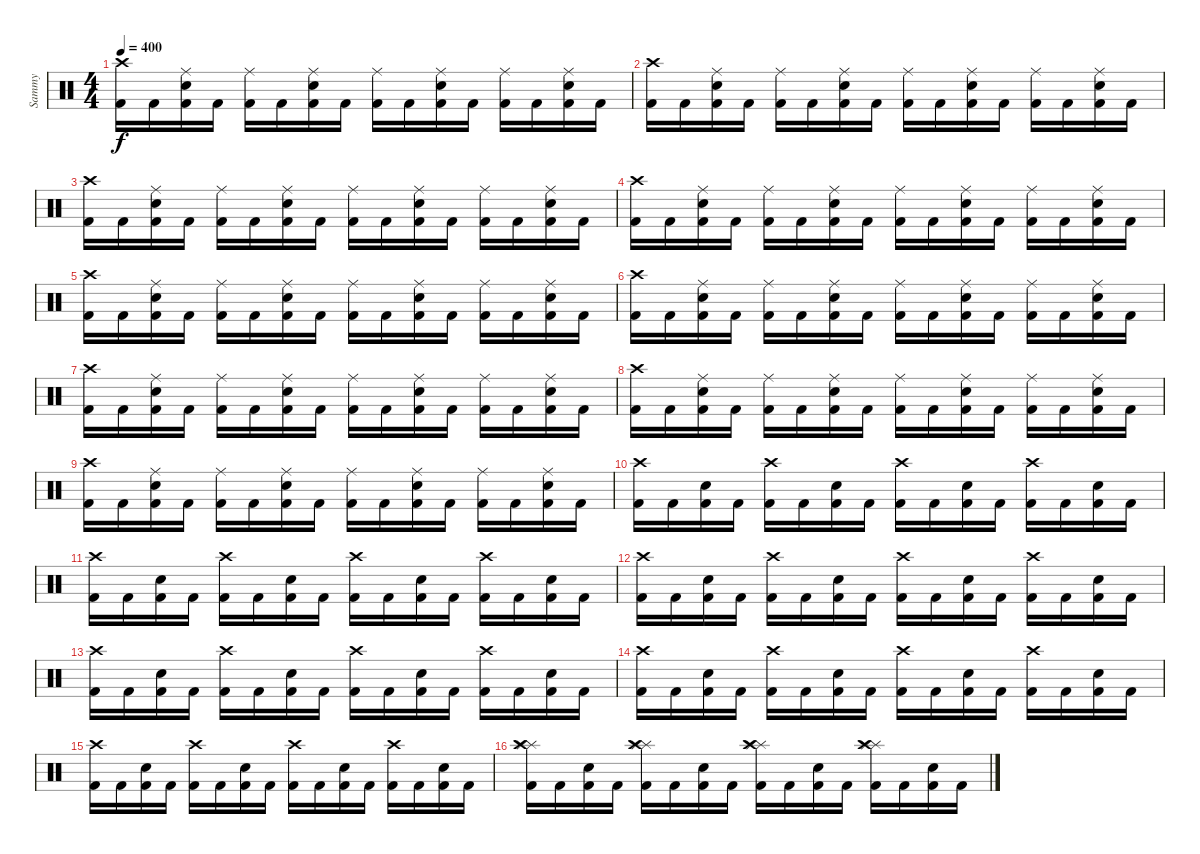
\track ("Sammy" "Sammy") {instrument percussion}
\staff {score}
\articulation defaults
\ts (4 4)
\tempo 400
\clef neutral
\ks c
("Crash high (hit)" "Kick (hit) 2").16{dy f} "Kick (hit) 2".16 ("Ride (middle)" "Electric Snare (hit)" "Kick (hit) 2").16 "Kick (hit) 2".16 ("Ride (middle)" "Kick (hit) 2").16 "Kick (hit) 2".16 ("Ride (middle)" "Electric Snare (hit)" "Kick (hit) 2").16 "Kick (hit) 2".16 ("Ride (middle)" "Kick (hit) 2").16 "Kick (hit) 2".16 ("Ride (middle)" "Electric Snare (hit)" "Kick (hit) 2").16 "Kick (hit) 2".16 ("Ride (middle)" "Kick (hit) 2").16 "Kick (hit) 2".16 ("Ride (middle)" "Electric Snare (hit)" "Kick (hit) 2").16 "Kick (hit) 2".16 |
("Crash high (hit)" "Kick (hit) 2").16 "Kick (hit) 2".16 ("Ride (middle)" "Electric Snare (hit)" "Kick (hit) 2").16 "Kick (hit) 2".16 ("Ride (middle)" "Kick (hit) 2").16 "Kick (hit) 2".16 ("Ride (middle)" "Electric Snare (hit)" "Kick (hit) 2").16 "Kick (hit) 2".16 ("Ride (middle)" "Kick (hit) 2").16 "Kick (hit) 2".16 ("Ride (middle)" "Electric Snare (hit)" "Kick (hit) 2").16 "Kick (hit) 2".16 ("Ride (middle)" "Kick (hit) 2").16 "Kick (hit) 2".16 ("Ride (middle)" "Electric Snare (hit)" "Kick (hit) 2").16 "Kick (hit) 2".16 |
("Crash high (hit)" "Kick (hit) 2").16 "Kick (hit) 2".16 ("Ride (middle)" "Electric Snare (hit)" "Kick (hit) 2").16 "Kick (hit) 2".16 ("Ride (middle)" "Kick (hit) 2").16 "Kick (hit) 2".16 ("Ride (middle)" "Electric Snare (hit)" "Kick (hit) 2").16 "Kick (hit) 2".16 ("Ride (middle)" "Kick (hit) 2").16 "Kick (hit) 2".16 ("Ride (middle)" "Electric Snare (hit)" "Kick (hit) 2").16 "Kick (hit) 2".16 ("Ride (middle)" "Kick (hit) 2").16 "Kick (hit) 2".16 ("Ride (middle)" "Electric Snare (hit)" "Kick (hit) 2").16 "Kick (hit) 2".16 |
("Crash high (hit)" "Kick (hit) 2").16 "Kick (hit) 2".16 ("Ride (middle)" "Electric Snare (hit)" "Kick (hit) 2").16 "Kick (hit) 2".16 ("Ride (middle)" "Kick (hit) 2").16 "Kick (hit) 2".16 ("Ride (middle)" "Electric Snare (hit)" "Kick (hit) 2").16 "Kick (hit) 2".16 ("Ride (middle)" "Kick (hit) 2").16 "Kick (hit) 2".16 ("Ride (middle)" "Electric Snare (hit)" "Kick (hit) 2").16 "Kick (hit) 2".16 ("Ride (middle)" "Kick (hit) 2").16 "Kick (hit) 2".16 ("Ride (middle)" "Electric Snare (hit)" "Kick (hit) 2").16 "Kick (hit) 2".16 |
("Crash high (hit)" "Kick (hit) 2").16 "Kick (hit) 2".16 ("Ride (middle)" "Electric Snare (hit)" "Kick (hit) 2").16 "Kick (hit) 2".16 ("Ride (middle)" "Kick (hit) 2").16 "Kick (hit) 2".16 ("Ride (middle)" "Electric Snare (hit)" "Kick (hit) 2").16 "Kick (hit) 2".16 ("Ride (middle)" "Kick (hit) 2").16 "Kick (hit) 2".16 ("Ride (middle)" "Electric Snare (hit)" "Kick (hit) 2").16 "Kick (hit) 2".16 ("Ride (middle)" "Kick (hit) 2").16 "Kick (hit) 2".16 ("Ride (middle)" "Electric Snare (hit)" "Kick (hit) 2").16 "Kick (hit) 2".16 |
("Crash high (hit)" "Kick (hit) 2").16 "Kick (hit) 2".16 ("Ride (middle)" "Electric Snare (hit)" "Kick (hit) 2").16 "Kick (hit) 2".16 ("Ride (middle)" "Kick (hit) 2").16 "Kick (hit) 2".16 ("Ride (middle)" "Electric Snare (hit)" "Kick (hit) 2").16 "Kick (hit) 2".16 ("Ride (middle)" "Kick (hit) 2").16 "Kick (hit) 2".16 ("Ride (middle)" "Electric Snare (hit)" "Kick (hit) 2").16 "Kick (hit) 2".16 ("Ride (middle)" "Kick (hit) 2").16 "Kick (hit) 2".16 ("Ride (middle)" "Electric Snare (hit)" "Kick (hit) 2").16 "Kick (hit) 2".16 |
("Crash high (hit)" "Kick (hit) 2").16 "Kick (hit) 2".16 ("Ride (middle)" "Electric Snare (hit)" "Kick (hit) 2").16 "Kick (hit) 2".16 ("Ride (middle)" "Kick (hit) 2").16 "Kick (hit) 2".16 ("Ride (middle)" "Electric Snare (hit)" "Kick (hit) 2").16 "Kick (hit) 2".16 ("Ride (middle)" "Kick (hit) 2").16 "Kick (hit) 2".16 ("Ride (middle)" "Electric Snare (hit)" "Kick (hit) 2").16 "Kick (hit) 2".16 ("Ride (middle)" "Kick (hit) 2").16 "Kick (hit) 2".16 ("Ride (middle)" "Electric Snare (hit)" "Kick (hit) 2").16 "Kick (hit) 2".16 |
("Crash high (hit)" "Kick (hit) 2").16 "Kick (hit) 2".16 ("Ride (middle)" "Electric Snare (hit)" "Kick (hit) 2").16 "Kick (hit) 2".16 ("Ride (middle)" "Kick (hit) 2").16 "Kick (hit) 2".16 ("Ride (middle)" "Electric Snare (hit)" "Kick (hit) 2").16 "Kick (hit) 2".16 ("Ride (middle)" "Kick (hit) 2").16 "Kick (hit) 2".16 ("Ride (middle)" "Electric Snare (hit)" "Kick (hit) 2").16 "Kick (hit) 2".16 ("Ride (middle)" "Kick (hit) 2").16 "Kick (hit) 2".16 ("Ride (middle)" "Electric Snare (hit)" "Kick (hit) 2").16 "Kick (hit) 2".16 |
("Crash high (hit)" "Kick (hit) 2").16 "Kick (hit) 2".16 ("Ride (middle)" "Electric Snare (hit)" "Kick (hit) 2").16 "Kick (hit) 2".16 ("Ride (middle)" "Kick (hit) 2").16 "Kick (hit) 2".16 ("Ride (middle)" "Electric Snare (hit)" "Kick (hit) 2").16 "Kick (hit) 2".16 ("Ride (middle)" "Kick (hit) 2").16 "Kick (hit) 2".16 ("Ride (middle)" "Electric Snare (hit)" "Kick (hit) 2").16 "Kick (hit) 2".16 ("Ride (middle)" "Kick (hit) 2").16 "Kick (hit) 2".16 ("Ride (middle)" "Electric Snare (hit)" "Kick (hit) 2").16 "Kick (hit) 2".16 |
("Crash high (hit)" "Kick (hit) 2").16 "Kick (hit) 2".16 ("Electric Snare (hit)" "Kick (hit) 2").16 "Kick (hit) 2".16 ("Crash high (hit)" "Kick (hit) 2").16 "Kick (hit) 2".16 ("Electric Snare (hit)" "Kick (hit) 2").16 "Kick (hit) 2".16 ("Crash high (hit)" "Kick (hit) 2").16 "Kick (hit) 2".16 ("Electric Snare (hit)" "Kick (hit) 2").16 "Kick (hit) 2".16 ("Crash high (hit)" "Kick (hit) 2").16 "Kick (hit) 2".16 ("Electric Snare (hit)" "Kick (hit) 2").16 "Kick (hit) 2".16 |
("Crash high (hit)" "Kick (hit) 2").16 "Kick (hit) 2".16 ("Electric Snare (hit)" "Kick (hit) 2").16 "Kick (hit) 2".16 ("Crash high (hit)" "Kick (hit) 2").16 "Kick (hit) 2".16 ("Electric Snare (hit)" "Kick (hit) 2").16 "Kick (hit) 2".16 ("Crash high (hit)" "Kick (hit) 2").16 "Kick (hit) 2".16 ("Electric Snare (hit)" "Kick (hit) 2").16 "Kick (hit) 2".16 ("Crash high (hit)" "Kick (hit) 2").16 "Kick (hit) 2".16 ("Electric Snare (hit)" "Kick (hit) 2").16 "Kick (hit) 2".16 |
("Crash high (hit)" "Kick (hit) 2").16 "Kick (hit) 2".16 ("Electric Snare (hit)" "Kick (hit) 2").16 "Kick (hit) 2".16 ("Crash high (hit)" "Kick (hit) 2").16 "Kick (hit) 2".16 ("Electric Snare (hit)" "Kick (hit) 2").16 "Kick (hit) 2".16 ("Crash high (hit)" "Kick (hit) 2").16 "Kick (hit) 2".16 ("Electric Snare (hit)" "Kick (hit) 2").16 "Kick (hit) 2".16 ("Crash high (hit)" "Kick (hit) 2").16 "Kick (hit) 2".16 ("Electric Snare (hit)" "Kick (hit) 2").16 "Kick (hit) 2".16 |
("Crash high (hit)" "Kick (hit) 2").16 "Kick (hit) 2".16 ("Electric Snare (hit)" "Kick (hit) 2").16 "Kick (hit) 2".16 ("Crash high (hit)" "Kick (hit) 2").16 "Kick (hit) 2".16 ("Electric Snare (hit)" "Kick (hit) 2").16 "Kick (hit) 2".16 ("Crash high (hit)" "Kick (hit) 2").16 "Kick (hit) 2".16 ("Electric Snare (hit)" "Kick (hit) 2").16 "Kick (hit) 2".16 ("Crash high (hit)" "Kick (hit) 2").16 "Kick (hit) 2".16 ("Electric Snare (hit)" "Kick (hit) 2").16 "Kick (hit) 2".16 |
("Crash high (hit)" "Kick (hit) 2").16 "Kick (hit) 2".16 ("Electric Snare (hit)" "Kick (hit) 2").16 "Kick (hit) 2".16 ("Crash high (hit)" "Kick (hit) 2").16 "Kick (hit) 2".16 ("Electric Snare (hit)" "Kick (hit) 2").16 "Kick (hit) 2".16 ("Crash high (hit)" "Kick (hit) 2").16 "Kick (hit) 2".16 ("Electric Snare (hit)" "Kick (hit) 2").16 "Kick (hit) 2".16 ("Crash high (hit)" "Kick (hit) 2").16 "Kick (hit) 2".16 ("Electric Snare (hit)" "Kick (hit) 2").16 "Kick (hit) 2".16 |
("Crash high (hit)" "Kick (hit) 2").16 "Kick (hit) 2".16 ("Electric Snare (hit)" "Kick (hit) 2").16 "Kick (hit) 2".16 ("Crash high (hit)" "Kick (hit) 2").16 "Kick (hit) 2".16 ("Electric Snare (hit)" "Kick (hit) 2").16 "Kick (hit) 2".16 ("Crash high (hit)" "Kick (hit) 2").16 "Kick (hit) 2".16 ("Electric Snare (hit)" "Kick (hit) 2").16 "Kick (hit) 2".16 ("Crash high (hit)" "Kick (hit) 2").16 "Kick (hit) 2".16 ("Electric Snare (hit)" "Kick (hit) 2").16 "Kick (hit) 2".16 |
("Splash (hit)" "Splash (hit)" "Crash high (hit)" "Kick (hit) 2").16 "Kick (hit) 2".16 ("Electric Snare (hit)" "Kick (hit) 2").16 "Kick (hit) 2".16 ("Splash (hit)" "Splash (hit)" "Crash high (hit)" "Kick (hit) 2").16 "Kick (hit) 2".16 ("Electric Snare (hit)" "Kick (hit) 2").16 "Kick (hit) 2".16 ("Splash (hit)" "Splash (hit)" "Crash high (hit)" "Kick (hit) 2").16 "Kick (hit) 2".16 ("Electric Snare (hit)" "Kick (hit) 2").16 "Kick (hit) 2".16 ("Splash (hit)" "Splash (hit)" "Crash high (hit)" "Kick (hit) 2").16 "Kick (hit) 2".16 ("Electric Snare (hit)" "Kick (hit) 2").16 "Kick (hit) 2".16
